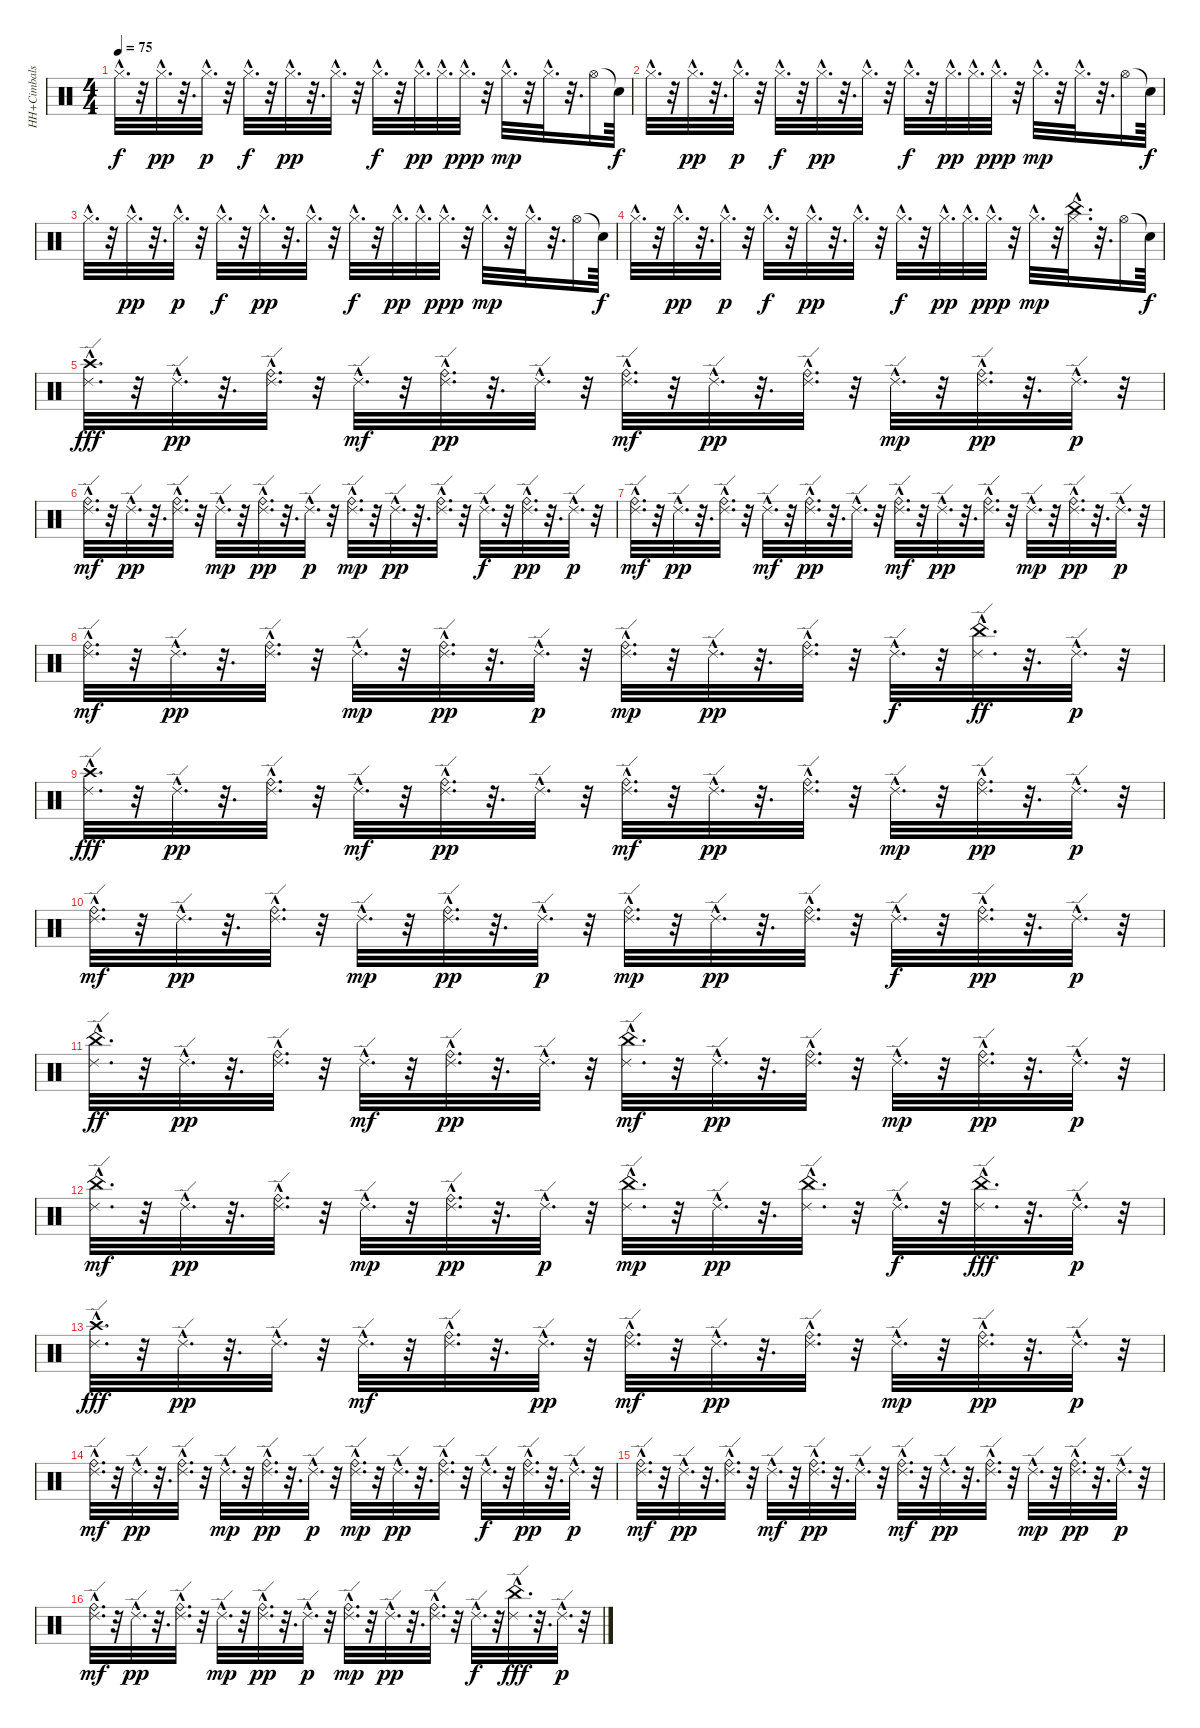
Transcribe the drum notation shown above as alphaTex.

\track ("HH+Cimbals" "HH+Cimbals") {instrument percussion}
\staff {score}
\articulation defaults
\ts (4 4)
\tempo 75
\clef neutral
\ks c "Hi-Hat (closed)"{hac}.32{d dy f}
r.32 "Hi-Hat (closed)"{hac}.32{d dy pp} r.32{d} "Hi-Hat (closed)"{hac}.32{d dy p} r.32 "Hi-Hat (closed)"{hac}.32{d dy f} r.32 "Hi-Hat (closed)"{hac}.32{d dy pp} r.32{d} "Hi-Hat (closed)"{hac}.32{d} r.32 "Hi-Hat (closed)"{hac}.32{d dy f} r.32 "Hi-Hat (closed)"{hac}.32{d dy pp} "Hi-Hat (closed)"{hac}.32{d} "Hi-Hat (closed)"{hac}.32{d dy ppp} r.32 "Hi-Hat (closed)"{hac}.32{d dy mp} r.32 "Hi-Hat (closed)"{hac}.32{d} r.32{d} "Hi-Hat (open)".16 "Snare (hit)"{t}.64{dy f} |
"Hi-Hat (closed)"{hac}.32{d} r.32 "Hi-Hat (closed)"{hac}.32{d dy pp} r.32{d} "Hi-Hat (closed)"{hac}.32{d dy p} r.32 "Hi-Hat (closed)"{hac}.32{d dy f} r.32 "Hi-Hat (closed)"{hac}.32{d dy pp} r.32{d} "Hi-Hat (closed)"{hac}.32{d} r.32 "Hi-Hat (closed)"{hac}.32{d dy f} r.32 "Hi-Hat (closed)"{hac}.32{d dy pp} "Hi-Hat (closed)"{hac}.32{d} "Hi-Hat (closed)"{hac}.32{d dy ppp} r.32 "Hi-Hat (closed)"{hac}.32{d dy mp} r.32 "Hi-Hat (closed)"{hac}.32{d} r.32{d} "Hi-Hat (open)".16 "Snare (hit)"{t}.64{dy f} |
"Hi-Hat (closed)"{hac}.32{d} r.32 "Hi-Hat (closed)"{hac}.32{d dy pp} r.32{d} "Hi-Hat (closed)"{hac}.32{d dy p} r.32 "Hi-Hat (closed)"{hac}.32{d dy f} r.32 "Hi-Hat (closed)"{hac}.32{d dy pp} r.32{d} "Hi-Hat (closed)"{hac}.32{d} r.32 "Hi-Hat (closed)"{hac}.32{d dy f} r.32 "Hi-Hat (closed)"{hac}.32{d dy pp} "Hi-Hat (closed)"{hac}.32{d} "Hi-Hat (closed)"{hac}.32{d dy ppp} r.32 "Hi-Hat (closed)"{hac}.32{d dy mp} r.32 "Hi-Hat (closed)"{hac}.32{d} r.32{d} "Hi-Hat (open)".16 "Snare (hit)"{t}.64{dy f} |
"Hi-Hat (closed)"{hac}.32{d} r.32 "Hi-Hat (closed)"{hac}.32{d dy pp} r.32{d} "Hi-Hat (closed)"{hac}.32{d dy p} r.32 "Hi-Hat (closed)"{hac}.32{d dy f} r.32 "Hi-Hat (closed)"{hac}.32{d dy pp} r.32{d} "Hi-Hat (closed)"{hac}.32{d} r.32 "Hi-Hat (closed)"{hac}.32{d dy f} r.32 "Hi-Hat (closed)"{hac}.32{d dy pp} "Hi-Hat (closed)"{hac}.32{d} "Hi-Hat (closed)"{hac}.32{d dy ppp} r.32 "Hi-Hat (closed)"{hac}.32{d dy mp} r.32 ("China (hit)"{hac} "Hi-Hat (closed)"{hac}).32{d} r.32{d} "Hi-Hat (open)".16 "Snare (hit)"{t}.64{dy f} |
("Ride (edge) 2"{hac} "Crash high (hit)"{hac}).32{d dy fff} r.32 "Ride (edge) 2"{hac}.32{d dy pp} r.32{d} ("Ride (edge) 2"{hac} "Ride (bell)"{hac}).32{d} r.32 "Ride (edge) 2"{hac}.32{d dy mf} r.32 ("Ride (edge) 2"{hac} "Ride (bell)"{hac}).32{d dy pp} r.32{d} "Ride (edge) 2"{hac}.32{d} r.32 ("Ride (edge) 2"{hac} "Ride (bell)"{hac}).32{d dy mf} r.32 "Ride (edge) 2"{hac}.32{d dy pp} r.32{d} ("Ride (edge) 2"{hac} "Ride (bell)"{hac}).32{d} r.32 "Ride (edge) 2"{hac}.32{d dy mp} r.32 ("Ride (edge) 2"{hac} "Ride (bell)"{hac}).32{d dy pp} r.32{d} "Ride (edge) 2"{hac}.32{d dy p} r.32 |
("Ride (bell)"{hac} "Ride (edge) 2"{hac}).32{d dy mf} r.32 "Ride (edge) 2"{hac}.32{d dy pp} r.32{d} ("Ride (bell)"{hac} "Ride (edge) 2"{hac}).32{d} r.32 "Ride (edge) 2"{hac}.32{d dy mp} r.32 ("Ride (edge) 2"{hac} "Ride (bell)"{hac}).32{d dy pp} r.32{d} "Ride (edge) 2"{hac}.32{d dy p} r.32 ("Ride (edge) 2"{hac} "Ride (bell)"{hac}).32{d dy mp} r.32 "Ride (edge) 2"{hac}.32{d dy pp} r.32{d} ("Ride (edge) 2"{hac} "Ride (bell)"{hac}).32{d} r.32 "Ride (edge) 2"{hac}.32{d dy f} r.32 ("Ride (edge) 2"{hac} "Ride (bell)"{hac}).32{d dy pp} r.32{d} "Ride (edge) 2"{hac}.32{d dy p} r.32 |
("Ride (bell)"{hac} "Ride (edge) 2"{hac}).32{d dy mf} r.32 "Ride (edge) 2"{hac}.32{d dy pp} r.32{d} ("Ride (bell)"{hac} "Ride (edge) 2"{hac}).32{d} r.32 "Ride (edge) 2"{hac}.32{d dy mf} r.32 ("Ride (edge) 2"{hac} "Ride (bell)"{hac}).32{d dy pp} r.32{d} "Ride (edge) 2"{hac}.32{d} r.32 ("Ride (bell)"{hac} "Ride (edge) 2"{hac}).32{d dy mf} r.32 "Ride (edge) 2"{hac}.32{d dy pp} r.32{d} ("Ride (bell)"{hac} "Ride (edge) 2"{hac}).32{d} r.32 "Ride (edge) 2"{hac}.32{d dy mp} r.32 ("Ride (edge) 2"{hac} "Ride (bell)"{hac}).32{d dy pp} r.32{d} "Ride (edge) 2"{hac}.32{d dy p} r.32 |
("Ride (bell)"{hac} "Ride (edge) 2"{hac}).32{d dy mf} r.32 "Ride (edge) 2"{hac}.32{d dy pp} r.32{d} ("Ride (edge) 2"{hac} "Ride (bell)"{hac}).32{d} r.32 "Ride (edge) 2"{hac}.32{d dy mp} r.32 ("Ride (bell)"{hac} "Ride (edge) 2"{hac}).32{d dy pp} r.32{d} "Ride (edge) 2"{hac}.32{d dy p} r.32 ("Ride (bell)"{hac} "Ride (edge) 2"{hac}).32{d dy mp} r.32 "Ride (edge) 2"{hac}.32{d dy pp} r.32{d} ("Ride (edge) 2"{hac} "Ride (bell)"{hac}).32{d} r.32 "Ride (edge) 2"{hac}.32{d dy f} r.32 ("Ride (edge) 2"{hac} "China (hit)"{hac}).32{d dy ff} r.32{d} "Ride (edge) 2"{hac}.32{d dy p} r.32 |
("Ride (edge) 2"{hac} "Crash high (hit)"{hac}).32{d dy fff} r.32 "Ride (edge) 2"{hac}.32{d dy pp} r.32{d} ("Ride (bell)"{hac} "Ride (edge) 2"{hac}).32{d} r.32 "Ride (edge) 2"{hac}.32{d dy mf} r.32 ("Ride (edge) 2"{hac} "Ride (bell)"{hac}).32{d dy pp} r.32{d} "Ride (edge) 2"{hac}.32{d} r.32 ("Ride (bell)"{hac} "Ride (edge) 2"{hac}).32{d dy mf} r.32 "Ride (edge) 2"{hac}.32{d dy pp} r.32{d} ("Ride (bell)"{hac} "Ride (edge) 2"{hac}).32{d} r.32 "Ride (edge) 2"{hac}.32{d dy mp} r.32 ("Ride (bell)"{hac} "Ride (edge) 2"{hac}).32{d dy pp} r.32{d} "Ride (edge) 2"{hac}.32{d dy p} r.32 |
("Ride (bell)"{hac} "Ride (edge) 2"{hac}).32{d dy mf} r.32 "Ride (edge) 2"{hac}.32{d dy pp} r.32{d} ("Ride (bell)"{hac} "Ride (edge) 2"{hac}).32{d} r.32 "Ride (edge) 2"{hac}.32{d dy mp} r.32 ("Ride (bell)"{hac} "Ride (edge) 2"{hac}).32{d dy pp} r.32{d} "Ride (edge) 2"{hac}.32{d dy p} r.32 ("Ride (edge) 2"{hac} "Ride (bell)"{hac}).32{d dy mp} r.32 "Ride (edge) 2"{hac}.32{d dy pp} r.32{d} ("Ride (edge) 2"{hac} "Ride (bell)"{hac}).32{d} r.32 "Ride (edge) 2"{hac}.32{d dy f} r.32 ("Ride (edge) 2"{hac} "Ride (bell)"{hac}).32{d dy pp} r.32{d} "Ride (edge) 2"{hac}.32{d dy p} r.32 |
("Ride (edge) 2"{hac} "China (hit)"{hac}).32{d dy ff} r.32 "Ride (edge) 2"{hac}.32{d dy pp} r.32{d} ("Ride (edge) 2"{hac} "Ride (bell)"{hac}).32{d} r.32 "Ride (edge) 2"{hac}.32{d dy mf} r.32 ("Ride (bell)"{hac} "Ride (edge) 2"{hac}).32{d dy pp} r.32{d} "Ride (edge) 2"{hac}.32{d} r.32 ("China (hit)"{hac} "Ride (edge) 2"{hac}).32{d dy mf} r.32 "Ride (edge) 2"{hac}.32{d dy pp} r.32{d} ("Ride (edge) 2"{hac} "Ride (bell)"{hac}).32{d} r.32 "Ride (edge) 2"{hac}.32{d dy mp} r.32 ("Ride (bell)"{hac} "Ride (edge) 2"{hac}).32{d dy pp} r.32{d} "Ride (edge) 2"{hac}.32{d dy p} r.32 |
("China (hit)"{hac} "Ride (edge) 2"{hac}).32{d dy mf} r.32 "Ride (edge) 2"{hac}.32{d dy pp} r.32{d} ("Ride (edge) 2"{hac} "Ride (bell)"{hac}).32{d} r.32 "Ride (edge) 2"{hac}.32{d dy mp} r.32 ("Ride (edge) 2"{hac} "Ride (bell)"{hac}).32{d dy pp} r.32{d} "Ride (edge) 2"{hac}.32{d dy p} r.32 ("China (hit)"{hac} "Ride (edge) 2"{hac}).32{d dy mp} r.32 "Ride (edge) 2"{hac}.32{d dy pp} r.32{d} ("China (hit)"{hac} "Ride (edge) 2"{hac}).32{d} r.32 "Ride (edge) 2"{hac}.32{d dy f} r.32 ("Ride (edge) 2"{hac} "China (hit)"{hac}).32{d dy fff} r.32{d} "Ride (edge) 2"{hac}.32{d dy p} r.32 |
("Ride (edge) 2"{hac} "Crash high (hit)"{hac}).32{d dy fff} r.32 "Ride (edge) 2"{hac}.32{d dy pp} r.32{d} "Ride (edge) 2"{hac}.32{d} r.32 "Ride (edge) 2"{hac}.32{d dy mf} r.32 ("Ride (edge) 2"{hac} "Ride (bell)"{hac}).32{d} r.32{d} "Ride (edge) 2"{hac}.32{d dy pp} r.32 ("Ride (edge) 2"{hac} "Ride (bell)"{hac}).32{d dy mf} r.32 "Ride (edge) 2"{hac}.32{d dy pp} r.32{d} ("Ride (edge) 2"{hac} "Ride (bell)"{hac}).32{d} r.32 "Ride (edge) 2"{hac}.32{d dy mp} r.32 ("Ride (edge) 2"{hac} "Ride (bell)"{hac}).32{d dy pp} r.32{d} "Ride (edge) 2"{hac}.32{d dy p} r.32 |
("Ride (edge) 2"{hac} "Ride (bell)"{hac}).32{d dy mf} r.32 "Ride (edge) 2"{hac}.32{d dy pp} r.32{d} ("Ride (bell)"{hac} "Ride (edge) 2"{hac}).32{d} r.32 "Ride (edge) 2"{hac}.32{d dy mp} r.32 ("Ride (bell)"{hac} "Ride (edge) 2"{hac}).32{d dy pp} r.32{d} "Ride (edge) 2"{hac}.32{d dy p} r.32 ("Ride (edge) 2"{hac} "Ride (bell)"{hac}).32{d dy mp} r.32 "Ride (edge) 2"{hac}.32{d dy pp} r.32{d} ("Ride (edge) 2"{hac} "Ride (bell)"{hac}).32{d} r.32 "Ride (edge) 2"{hac}.32{d dy f} r.32 ("Ride (edge) 2"{hac} "Ride (bell)"{hac}).32{d dy pp} r.32{d} "Ride (edge) 2"{hac}.32{d dy p} r.32 |
("Ride (edge) 2"{hac} "Ride (bell)"{hac}).32{d dy mf} r.32 "Ride (edge) 2"{hac}.32{d dy pp} r.32{d} ("Ride (edge) 2"{hac} "Ride (bell)"{hac}).32{d} r.32 "Ride (edge) 2"{hac}.32{d dy mf} r.32 ("Ride (bell)"{hac} "Ride (edge) 2"{hac}).32{d dy pp} r.32{d} "Ride (edge) 2"{hac}.32{d} r.32 ("Ride (bell)"{hac} "Ride (edge) 2"{hac}).32{d dy mf} r.32 "Ride (edge) 2"{hac}.32{d dy pp} r.32{d} ("Ride (edge) 2"{hac} "Ride (bell)"{hac}).32{d} r.32 "Ride (edge) 2"{hac}.32{d dy mp} r.32 ("Ride (edge) 2"{hac} "Ride (bell)"{hac}).32{d dy pp} r.32{d} "Ride (edge) 2"{hac}.32{d dy p} r.32 |
("Ride (bell)"{hac} "Ride (edge) 2"{hac}).32{d dy mf} r.32 "Ride (edge) 2"{hac}.32{d dy pp} r.32{d} ("Ride (edge) 2"{hac} "Ride (bell)"{hac}).32{d} r.32 "Ride (edge) 2"{hac}.32{d dy mp} r.32 ("Ride (edge) 2"{hac} "Ride (bell)"{hac}).32{d dy pp} r.32{d} "Ride (edge) 2"{hac}.32{d dy p} r.32 ("Ride (edge) 2"{hac} "Ride (bell)"{hac}).32{d dy mp} r.32 "Ride (edge) 2"{hac}.32{d dy pp} r.32{d} ("Ride (edge) 2"{hac} "Ride (bell)"{hac}).32{d} r.32 "Ride (edge) 2"{hac}.32{d dy f} r.32 ("Ride (edge) 2"{hac} "China (hit)"{hac}).32{d dy fff} r.32{d} "Ride (edge) 2"{hac}.32{d dy p} r.32
